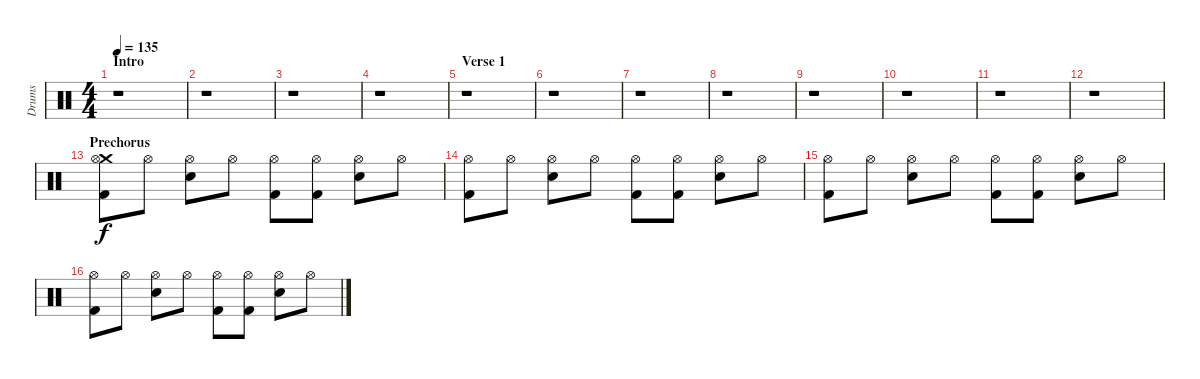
\track ("Drums" "Drums") {instrument percussion}
\staff {score}
\articulation defaults
\ts (4 4)
\section ("" "Intro")
\tempo 135
\clef neutral
\ks c
r.1{dy f} |
r.1 |
r.1 |
r.1 |
\section ("" "Verse 1")
r.1 |
r.1 |
r.1 |
r.1 |
r.1 |
r.1 |
r.1 |
r.1 |
\section ("" "Prechorus")
("Crash medium (hit)" "Hi-Hat (open)" "Kick (hit) 2").8 "Hi-Hat (open)".8 ("Hi-Hat (open)" "Snare (hit) 2").8 "Hi-Hat (open)".8 ("Hi-Hat (open)" "Kick (hit) 2").8 ("Hi-Hat (open)" "Kick (hit) 2").8 ("Hi-Hat (open)" "Snare (hit) 2").8 "Hi-Hat (open)".8 |
("Hi-Hat (open)" "Kick (hit) 2").8 "Hi-Hat (open)".8 ("Hi-Hat (open)" "Snare (hit) 2").8 "Hi-Hat (open)".8 ("Hi-Hat (open)" "Kick (hit) 2").8 ("Hi-Hat (open)" "Kick (hit) 2").8 ("Hi-Hat (open)" "Snare (hit) 2").8 "Hi-Hat (open)".8 |
("Hi-Hat (open)" "Kick (hit) 2").8 "Hi-Hat (open)".8 ("Hi-Hat (open)" "Snare (hit) 2").8 "Hi-Hat (open)".8 ("Hi-Hat (open)" "Kick (hit) 2").8 ("Hi-Hat (open)" "Kick (hit) 2").8 ("Hi-Hat (open)" "Snare (hit) 2").8 "Hi-Hat (open)".8 |
("Hi-Hat (open)" "Kick (hit) 2").8 "Hi-Hat (open)".8 ("Hi-Hat (open)" "Snare (hit) 2").8 "Hi-Hat (open)".8 ("Hi-Hat (open)" "Kick (hit) 2").8 ("Hi-Hat (open)" "Kick (hit) 2").8 ("Hi-Hat (open)" "Snare (hit) 2").8 "Hi-Hat (open)".8
